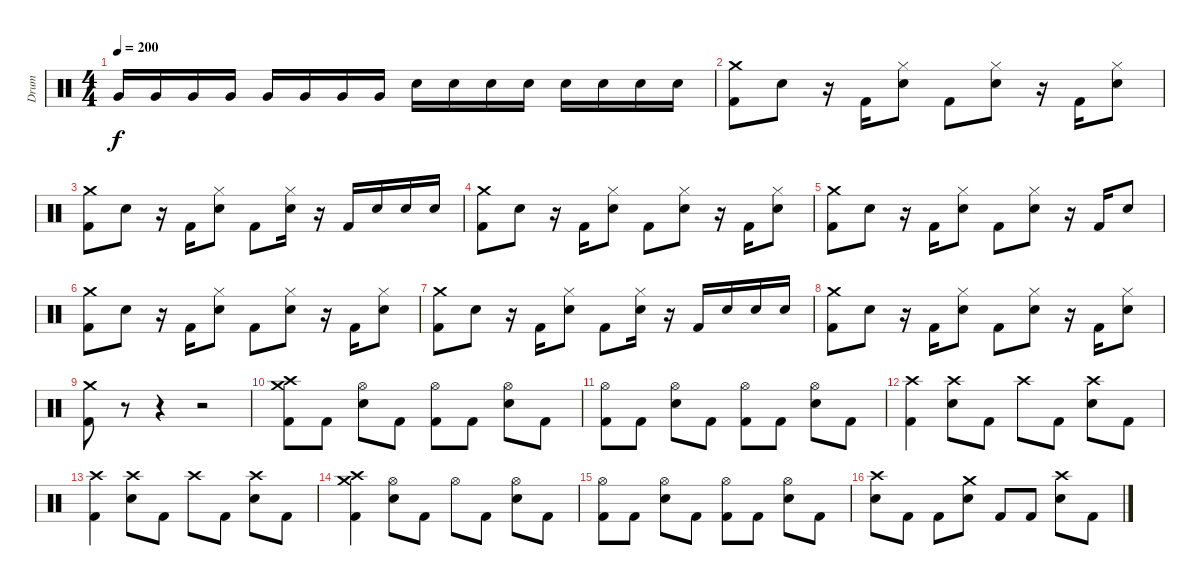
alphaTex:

\track ("Drum" "Drum") {instrument percussion}
\staff
\articulation defaults
\ts (4 4)
\tempo 200
\clef neutral
\ks c "Very Low Tom (hit)".16{dy f} "Very Low Tom (hit)".16 "Very Low Tom (hit)".16 "Very Low Tom (hit)".16 "Very Low Tom (hit)".16 "Very Low Tom (hit)".16 "Very Low Tom (hit)".16 "Very Low Tom (hit)".16 "Electric Snare (hit)".16 "Electric Snare (hit)".16 "Electric Snare (hit)".16 "Electric Snare (hit)".16 "Electric Snare (hit)".16 "Electric Snare (hit)".16 "Electric Snare (hit)".16 "Electric Snare (hit)".16
|
("Crash medium (hit)" "Kick (hit) 2").8 "Electric Snare (hit)".8 r.16 "Kick (hit) 2".16 ("Hi-Hat (closed)" "Electric Snare (hit)").8 "Kick (hit) 2".8 ("Hi-Hat (closed)" "Electric Snare (hit)").8 r.16 "Kick (hit) 2".16 ("Hi-Hat (closed)" "Electric Snare (hit)").8 |
("Crash medium (hit)" "Kick (hit) 2").8 "Electric Snare (hit)".8 r.16 "Kick (hit) 2".16 ("Hi-Hat (closed)" "Electric Snare (hit)").8 "Kick (hit) 2".8 ("Hi-Hat (closed)" "Electric Snare (hit)").16 r.16 "Kick (hit) 2".16 "Electric Snare (hit)".16 "Electric Snare (hit)".16 "Electric Snare (hit)".16 |
("Crash medium (hit)" "Kick (hit) 2").8 "Electric Snare (hit)".8 r.16 "Kick (hit) 2".16 ("Hi-Hat (closed)" "Electric Snare (hit)").8 "Kick (hit) 2".8 ("Hi-Hat (closed)" "Electric Snare (hit)").8 r.16 "Kick (hit) 2".16 ("Hi-Hat (closed)" "Electric Snare (hit)").8 |
("Crash medium (hit)" "Kick (hit) 2").8 "Electric Snare (hit)".8 r.16 "Kick (hit) 2".16 ("Hi-Hat (closed)" "Electric Snare (hit)").8 "Kick (hit) 2".8 ("Hi-Hat (closed)" "Electric Snare (hit)").8 r.16 "Kick (hit) 2".16 "Electric Snare (hit)".8 |
("Crash medium (hit)" "Kick (hit) 2").8 "Electric Snare (hit)".8 r.16 "Kick (hit) 2".16 ("Hi-Hat (closed)" "Electric Snare (hit)").8 "Kick (hit) 2".8 ("Hi-Hat (closed)" "Electric Snare (hit)").8 r.16 "Kick (hit) 2".16 ("Hi-Hat (closed)" "Electric Snare (hit)").8 |
("Crash medium (hit)" "Kick (hit) 2").8 "Electric Snare (hit)".8 r.16 "Kick (hit) 2".16 ("Hi-Hat (closed)" "Electric Snare (hit)").8 "Kick (hit) 2".8 ("Hi-Hat (closed)" "Electric Snare (hit)").16 r.16 "Kick (hit) 2".16 "Electric Snare (hit)".16 "Electric Snare (hit)".16 "Electric Snare (hit)".16 |
("Crash medium (hit)" "Kick (hit) 2").8 "Electric Snare (hit)".8 r.16 "Kick (hit) 2".16 ("Hi-Hat (closed)" "Electric Snare (hit)").8 "Kick (hit) 2".8 ("Hi-Hat (closed)" "Electric Snare (hit)").8 r.16 "Kick (hit) 2".16 ("Hi-Hat (closed)" "Electric Snare (hit)").8 |
("Crash medium (hit)" "Kick (hit) 2").8 r.8 r.4 r.2 |
("Crash high (hit)" "Crash medium (hit)" "Kick (hit) 2").8 "Kick (hit) 2".8 ("Hi-Hat (open)" "Electric Snare (hit)").8 "Kick (hit) 2".8 ("Hi-Hat (open)" "Kick (hit) 2").8 "Kick (hit) 2".8 ("Hi-Hat (open)" "Electric Snare (hit)").8 "Kick (hit) 2".8 |
("Hi-Hat (open)" "Kick (hit) 2").8 "Kick (hit) 2".8 ("Hi-Hat (open)" "Electric Snare (hit)").8 "Kick (hit) 2".8 ("Hi-Hat (open)" "Kick (hit) 2").8 "Kick (hit) 2".8 ("Hi-Hat (open)" "Electric Snare (hit)").8 "Kick (hit) 2".8 |
("Crash high (hit)" "Kick (hit) 2").4 ("Crash high (hit)" "Electric Snare (hit)").8 "Kick (hit) 2".8 "Crash high (hit)".8 "Kick (hit) 2".8 ("Crash high (hit)" "Electric Snare (hit)").8 "Kick (hit) 2".8 |
("Crash high (hit)" "Kick (hit) 2").4 ("Crash high (hit)" "Electric Snare (hit)").8 "Kick (hit) 2".8 "Crash high (hit)".8 "Kick (hit) 2".8 ("Crash high (hit)" "Electric Snare (hit)").8 "Kick (hit) 2".8 |
("Crash high (hit)" "Crash medium (hit)" "Kick (hit) 2").4 ("Hi-Hat (open)" "Electric Snare (hit)").8 "Kick (hit) 2".8 "Hi-Hat (open)".8 "Kick (hit) 2".8 ("Hi-Hat (open)" "Electric Snare (hit)").8 "Kick (hit) 2".8 |
("Hi-Hat (open)" "Kick (hit) 2").8 "Kick (hit) 2".8 ("Hi-Hat (open)" "Electric Snare (hit)").8 "Kick (hit) 2".8 ("Hi-Hat (open)" "Kick (hit) 2").8 "Kick (hit) 2".8 ("Hi-Hat (open)" "Electric Snare (hit)").8 "Kick (hit) 2".8 |
("Crash high (hit)" "Electric Snare (hit)").8 "Kick (hit) 2".8 "Kick (hit) 2".8 ("Crash medium (hit)" "Electric Snare (hit)").8 "Kick (hit) 2".8 "Kick (hit) 2".8 ("Crash high (hit)" "Electric Snare (hit)").8 "Kick (hit) 2".8
